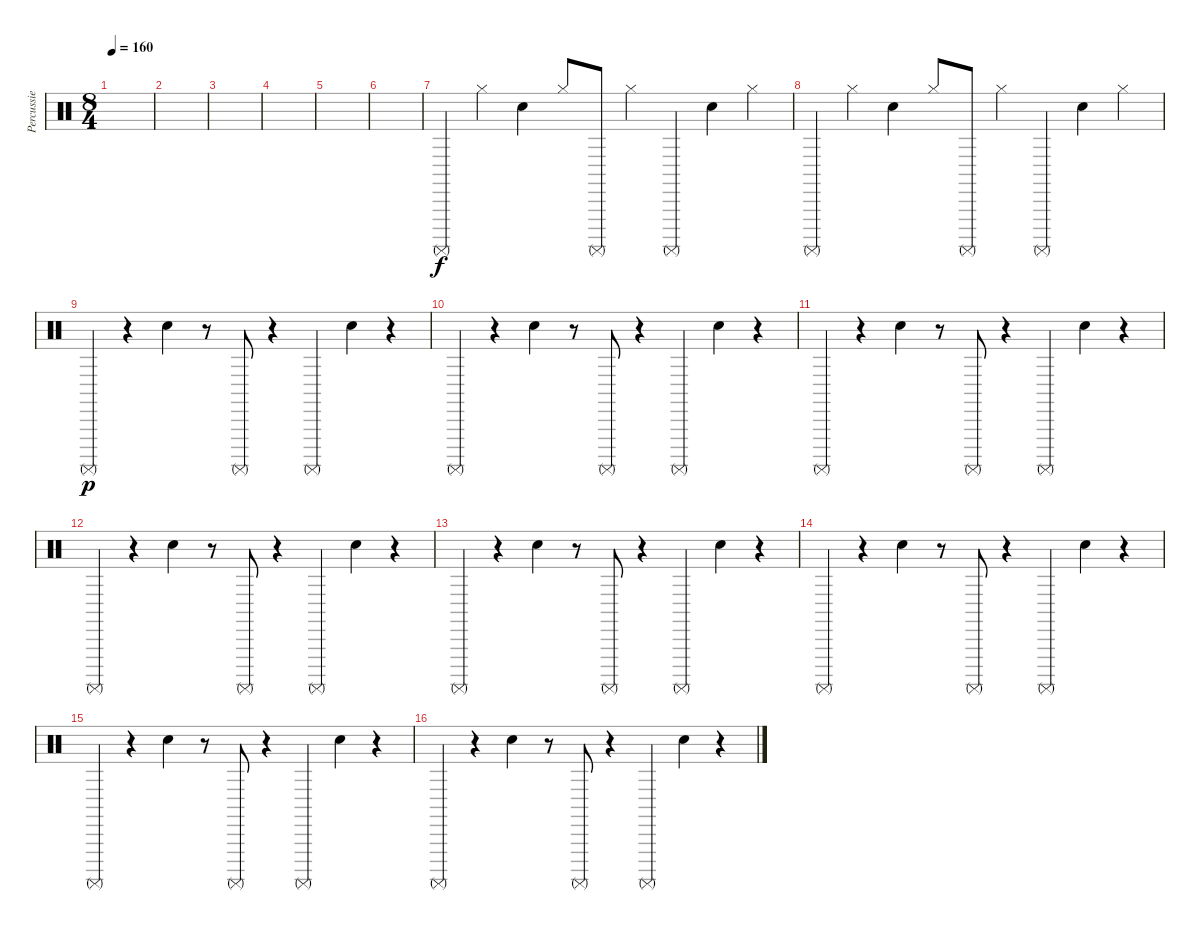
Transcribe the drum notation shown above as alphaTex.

\track ("Percussie" "Percussie") {instrument percussion}
\staff {score}
\articulation defaults
\ts (8 4)
\tempo 160
\clef neutral
\ks c
|
|
|
|
|
|
"Surdo (mute)".4{dy f} "Hi-Hat (closed)".4 "Hand Clap (hit)".4 "Hi-Hat (closed)".8 "Surdo (mute)".8 "Hi-Hat (closed)".4 "Surdo (mute)".4 "Hand Clap (hit)".4 "Hi-Hat (closed)".4 |
"Surdo (mute)".4 "Hi-Hat (closed)".4 "Hand Clap (hit)".4 "Hi-Hat (closed)".8 "Surdo (mute)".8 "Hi-Hat (closed)".4 "Surdo (mute)".4 "Hand Clap (hit)".4 "Hi-Hat (closed)".4 |
"Surdo (mute)".4{dy p} r.4 "Hand Clap (hit)".4 r.8 "Surdo (mute)".8 r.4 "Surdo (mute)".4 "Hand Clap (hit)".4 r.4 |
"Surdo (mute)".4 r.4 "Hand Clap (hit)".4 r.8 "Surdo (mute)".8 r.4 "Surdo (mute)".4 "Hand Clap (hit)".4 r.4 |
"Surdo (mute)".4 r.4 "Hand Clap (hit)".4 r.8 "Surdo (mute)".8 r.4 "Surdo (mute)".4 "Hand Clap (hit)".4 r.4 |
"Surdo (mute)".4 r.4 "Hand Clap (hit)".4 r.8 "Surdo (mute)".8 r.4 "Surdo (mute)".4 "Hand Clap (hit)".4 r.4 |
"Surdo (mute)".4 r.4 "Hand Clap (hit)".4 r.8 "Surdo (mute)".8 r.4 "Surdo (mute)".4 "Hand Clap (hit)".4 r.4 |
"Surdo (mute)".4 r.4 "Hand Clap (hit)".4 r.8 "Surdo (mute)".8 r.4 "Surdo (mute)".4 "Hand Clap (hit)".4 r.4 |
"Surdo (mute)".4 r.4 "Hand Clap (hit)".4 r.8 "Surdo (mute)".8 r.4 "Surdo (mute)".4 "Hand Clap (hit)".4 r.4 |
"Surdo (mute)".4 r.4 "Hand Clap (hit)".4 r.8 "Surdo (mute)".8 r.4 "Surdo (mute)".4 "Hand Clap (hit)".4 r.4
